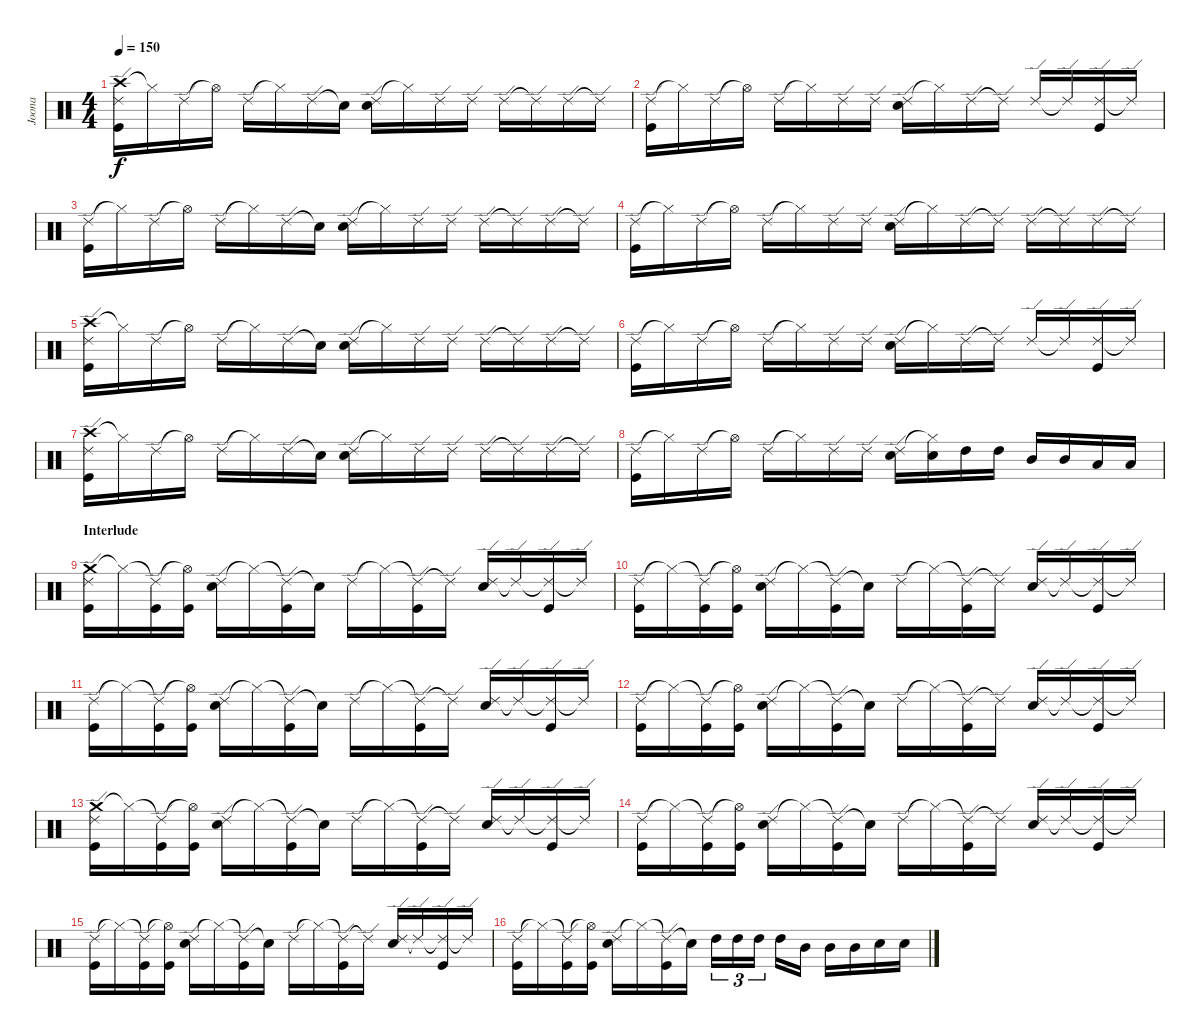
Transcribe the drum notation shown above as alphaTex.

\track ("Joona" "Joona") {instrument percussion}
\staff {score}
\articulation defaults
\ts (4 4)
\tempo 150
\clef neutral
\ks c
("Crash high (hit)" "Ride (edge) 2" "Kick (hit)").16{dy f} "Hi-Hat (closed)"{t}.16 "Ride (edge) 2".16 "Hi-Hat (open)"{t}.16 "Ride (edge) 2".16 "Hi-Hat (closed)"{t}.16 "Ride (edge) 2".16 "Snare (hit)"{t}.16 ("Ride (edge) 2" "Snare (hit) 2").16 "Hi-Hat (closed)"{t}.16 "Ride (edge) 2".16 "Ride (edge) 2".16 "Ride (edge) 2".16 "Ride (edge) 2"{t}.16 "Ride (edge) 2".16 "Ride (edge) 2"{t}.16 |
("Ride (edge) 2" "Kick (hit)").16 "Hi-Hat (closed)"{t}.16 "Ride (edge) 2".16 "Hi-Hat (open)"{t}.16 "Ride (edge) 2".16 "Hi-Hat (closed)"{t}.16 "Ride (edge) 2".16 "Ride (edge) 2".16 ("Ride (edge) 2" "Snare (hit) 2").16 "Hi-Hat (closed)"{t}.16 "Ride (edge) 2".16 "Ride (edge) 2"{t}.16 "Ride (edge) 2".16 "Ride (edge) 2"{t}.16 ("Ride (edge) 2" "Kick (hit)").16 "Ride (edge) 2"{t}.16 |
("Ride (edge) 2" "Kick (hit)").16 "Hi-Hat (closed)"{t}.16 "Ride (edge) 2".16 "Hi-Hat (open)"{t}.16 "Ride (edge) 2".16 "Hi-Hat (closed)"{t}.16 "Ride (edge) 2".16 "Snare (hit)"{t}.16 ("Ride (edge) 2" "Snare (hit) 2").16 "Hi-Hat (closed)"{t}.16 "Ride (edge) 2".16 "Ride (edge) 2".16 "Ride (edge) 2".16 "Ride (edge) 2"{t}.16 "Ride (edge) 2".16 "Ride (edge) 2"{t}.16 |
("Ride (edge) 2" "Kick (hit)").16 "Hi-Hat (closed)"{t}.16 "Ride (edge) 2".16 "Hi-Hat (open)"{t}.16 "Ride (edge) 2".16 "Hi-Hat (closed)"{t}.16 "Ride (edge) 2".16 "Ride (edge) 2".16 ("Ride (edge) 2" "Snare (hit) 2").16 "Hi-Hat (closed)"{t}.16 "Ride (edge) 2".16 "Ride (edge) 2"{t}.16 "Ride (edge) 2".16 "Ride (edge) 2"{t}.16 "Ride (edge) 2".16 "Ride (edge) 2"{t}.16 |
("Crash high (hit)" "Ride (edge) 2" "Kick (hit)").16 "Hi-Hat (closed)"{t}.16 "Ride (edge) 2".16 "Hi-Hat (open)"{t}.16 "Ride (edge) 2".16 "Hi-Hat (closed)"{t}.16 "Ride (edge) 2".16 "Snare (hit)"{t}.16 ("Ride (edge) 2" "Snare (hit) 2").16 "Hi-Hat (closed)"{t}.16 "Ride (edge) 2".16 "Ride (edge) 2".16 "Ride (edge) 2".16 "Ride (edge) 2"{t}.16 "Ride (edge) 2".16 "Ride (edge) 2"{t}.16 |
("Ride (edge) 2" "Kick (hit)").16 "Hi-Hat (closed)"{t}.16 "Ride (edge) 2".16 "Hi-Hat (open)"{t}.16 "Ride (edge) 2".16 "Hi-Hat (closed)"{t}.16 "Ride (edge) 2".16 "Ride (edge) 2".16 ("Ride (edge) 2" "Snare (hit) 2").16 "Hi-Hat (closed)"{t}.16 "Ride (edge) 2".16 "Ride (edge) 2"{t}.16 "Ride (edge) 2".16 "Ride (edge) 2"{t}.16 ("Ride (edge) 2" "Kick (hit)").16 "Ride (edge) 2"{t}.16 |
("Crash high (hit)" "Ride (edge) 2" "Kick (hit)").16 "Hi-Hat (closed)"{t}.16 "Ride (edge) 2".16 "Hi-Hat (open)"{t}.16 "Ride (edge) 2".16 "Hi-Hat (closed)"{t}.16 "Ride (edge) 2".16 "Snare (hit)"{t}.16 ("Ride (edge) 2" "Snare (hit) 2").16 "Hi-Hat (closed)"{t}.16 "Ride (edge) 2".16 "Ride (edge) 2".16 "Ride (edge) 2".16 "Ride (edge) 2"{t}.16 "Ride (edge) 2".16 "Ride (edge) 2"{t}.16 |
("Ride (edge) 2" "Kick (hit)").16 "Hi-Hat (closed)"{t}.16 "Ride (edge) 2".16 "Hi-Hat (open)"{t}.16 "Ride (edge) 2".16 "Hi-Hat (closed)"{t}.16 "Ride (edge) 2".16 "Ride (edge) 2".16 ("Ride (edge) 2" "Snare (hit) 2").16 ("Hi-Hat (closed)"{t} "Snare (hit) 2").16 "High Tom (hit)".16 "High Tom (hit)".16 "Mid Tom (hit)".16 "Mid Tom (hit)".16 "Low Tom (hit)".16 "Low Tom (hit)".16 |
\section ("" "Interlude")
("Crash medium (hit)" "Ride (edge) 2" "Kick (hit)").16 "Hi-Hat (closed)"{t}.16 ("Ride (edge) 2"{t} "Kick (hit)").16 ("Hi-Hat (open)"{t} "Kick (hit)").16 ("Ride (edge) 2" "Snare (hit) 2").16 "Hi-Hat (closed)"{t}.16 ("Ride (edge) 2"{t} "Kick (hit)").16 "Snare (hit)"{t}.16 "Ride (edge) 2".16 "Hi-Hat (closed)"{t}.16 ("Ride (edge) 2"{t} "Kick (hit)").16 "Ride (edge) 2"{t}.16 ("Ride (edge) 2" "Snare (hit) 2").16 "Ride (edge) 2"{t}.16 ("Ride (edge) 2"{t} "Kick (hit)").16 "Ride (edge) 2"{t}.16 |
("Ride (edge) 2" "Kick (hit)").16 "Hi-Hat (closed)"{t}.16 ("Ride (edge) 2"{t} "Kick (hit)").16 ("Hi-Hat (open)"{t} "Kick (hit)").16 ("Ride (edge) 2" "Snare (hit) 2").16 "Hi-Hat (closed)"{t}.16 ("Ride (edge) 2"{t} "Kick (hit)").16 "Snare (hit)"{t}.16 "Ride (edge) 2".16 "Hi-Hat (closed)"{t}.16 ("Ride (edge) 2"{t} "Kick (hit)").16 "Ride (edge) 2"{t}.16 ("Ride (edge) 2" "Snare (hit) 2").16 "Ride (edge) 2"{t}.16 ("Ride (edge) 2"{t} "Kick (hit)").16 "Ride (edge) 2"{t}.16 |
("Ride (edge) 2" "Kick (hit)").16 "Hi-Hat (closed)"{t}.16 ("Ride (edge) 2"{t} "Kick (hit)").16 ("Hi-Hat (open)"{t} "Kick (hit)").16 ("Ride (edge) 2" "Snare (hit) 2").16 "Hi-Hat (closed)"{t}.16 ("Ride (edge) 2"{t} "Kick (hit)").16 "Snare (hit)"{t}.16 "Ride (edge) 2".16 "Hi-Hat (closed)"{t}.16 ("Ride (edge) 2"{t} "Kick (hit)").16 "Ride (edge) 2"{t}.16 ("Ride (edge) 2" "Snare (hit) 2").16 "Ride (edge) 2"{t}.16 ("Ride (edge) 2"{t} "Kick (hit)").16 "Ride (edge) 2"{t}.16 |
("Ride (edge) 2" "Kick (hit)").16 "Hi-Hat (closed)"{t}.16 ("Ride (edge) 2"{t} "Kick (hit)").16 ("Hi-Hat (open)"{t} "Kick (hit)").16 ("Ride (edge) 2" "Snare (hit) 2").16 "Hi-Hat (closed)"{t}.16 ("Ride (edge) 2"{t} "Kick (hit)").16 "Snare (hit)"{t}.16 "Ride (edge) 2".16 "Hi-Hat (closed)"{t}.16 ("Ride (edge) 2"{t} "Kick (hit)").16 "Ride (edge) 2"{t}.16 ("Ride (edge) 2" "Snare (hit) 2").16 "Ride (edge) 2"{t}.16 ("Ride (edge) 2"{t} "Kick (hit)").16 "Ride (edge) 2"{t}.16 |
("Crash medium (hit)" "Ride (edge) 2" "Kick (hit)").16 "Hi-Hat (closed)"{t}.16 ("Ride (edge) 2"{t} "Kick (hit)").16 ("Hi-Hat (open)"{t} "Kick (hit)").16 ("Ride (edge) 2" "Snare (hit) 2").16 "Hi-Hat (closed)"{t}.16 ("Ride (edge) 2"{t} "Kick (hit)").16 "Snare (hit)"{t}.16 "Ride (edge) 2".16 "Hi-Hat (closed)"{t}.16 ("Ride (edge) 2"{t} "Kick (hit)").16 "Ride (edge) 2"{t}.16 ("Ride (edge) 2" "Snare (hit) 2").16 "Ride (edge) 2"{t}.16 ("Ride (edge) 2"{t} "Kick (hit)").16 "Ride (edge) 2"{t}.16 |
("Ride (edge) 2" "Kick (hit)").16 "Hi-Hat (closed)"{t}.16 ("Ride (edge) 2"{t} "Kick (hit)").16 ("Hi-Hat (open)"{t} "Kick (hit)").16 ("Ride (edge) 2" "Snare (hit) 2").16 "Hi-Hat (closed)"{t}.16 ("Ride (edge) 2"{t} "Kick (hit)").16 "Snare (hit)"{t}.16 "Ride (edge) 2".16 "Hi-Hat (closed)"{t}.16 ("Ride (edge) 2"{t} "Kick (hit)").16 "Ride (edge) 2"{t}.16 ("Ride (edge) 2" "Snare (hit) 2").16 "Ride (edge) 2"{t}.16 ("Ride (edge) 2"{t} "Kick (hit)").16 "Ride (edge) 2"{t}.16 |
("Ride (edge) 2" "Kick (hit)").16 "Hi-Hat (closed)"{t}.16 ("Ride (edge) 2"{t} "Kick (hit)").16 ("Hi-Hat (open)"{t} "Kick (hit)").16 ("Ride (edge) 2" "Snare (hit) 2").16 "Hi-Hat (closed)"{t}.16 ("Ride (edge) 2"{t} "Kick (hit)").16 "Snare (hit)"{t}.16 "Ride (edge) 2".16 "Hi-Hat (closed)"{t}.16 ("Ride (edge) 2"{t} "Kick (hit)").16 "Ride (edge) 2"{t}.16 ("Ride (edge) 2" "Snare (hit) 2").16 "Ride (edge) 2"{t}.16 ("Ride (edge) 2"{t} "Kick (hit)").16 "Ride (edge) 2"{t}.16 |
("Ride (edge) 2" "Kick (hit)").16 "Hi-Hat (closed)"{t}.16 ("Ride (edge) 2"{t} "Kick (hit)").16 ("Hi-Hat (open)"{t} "Kick (hit)").16 ("Ride (edge) 2" "Snare (hit) 2").16 "Hi-Hat (closed)"{t}.16 ("Ride (edge) 2"{t} "Kick (hit)").16 "Snare (hit)"{t}.16 "High Tom (hit)".16{tu (3 2)} "High Tom (hit)".16{tu (3 2)} "High Tom (hit)".16{tu (3 2)} "High Tom (hit)".16 "Mid Tom (hit)".16 "Mid Tom (hit)".16 "Mid Tom (hit)".16 "Snare (hit) 2".16 "Snare (hit) 2".16
